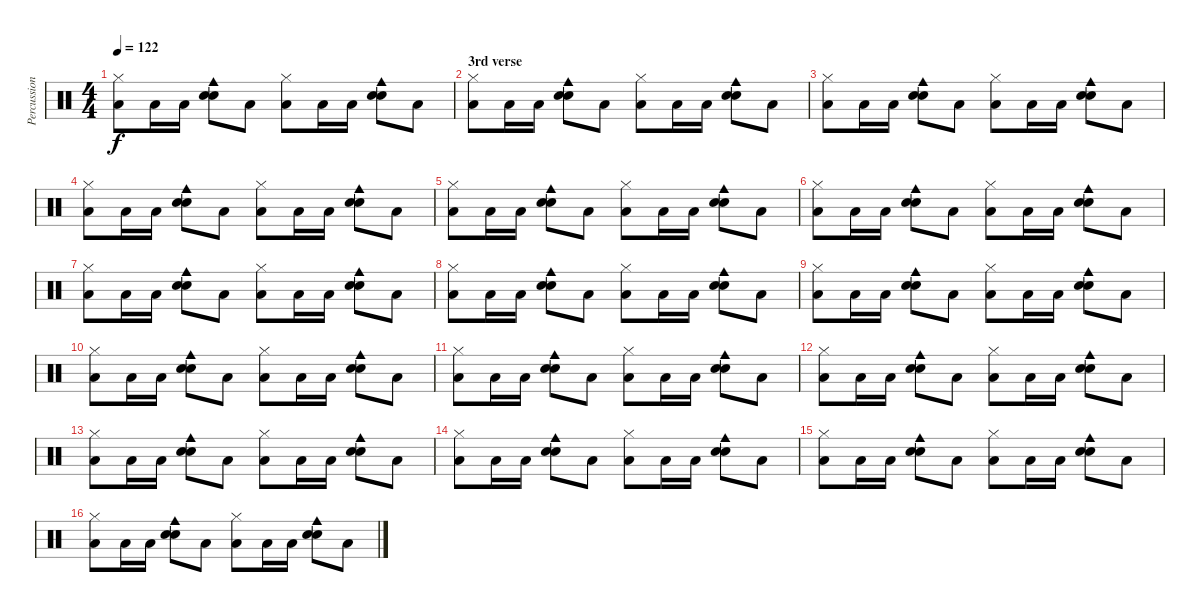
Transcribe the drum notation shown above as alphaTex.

\track ("Percussion" "Percussion") {instrument percussion}
\staff {score}
\articulation defaults
\ts (4 4)
\tempo 122
\clef neutral
\ks c
("Hi-Hat (closed)" "Low Tom (hit)").8{dy f} "Low Tom (hit)".16 "Low Tom (hit)".16 ("Snare (hit) 2" "Electric Snare (hit)" "Cowbell medium (hit)").8 "Low Tom (hit)".8 ("Hi-Hat (closed)" "Low Tom (hit)").8 "Low Tom (hit)".16 "Low Tom (hit)".16 ("Snare (hit) 2" "Electric Snare (hit)" "Cowbell medium (hit)").8 "Low Tom (hit)".8 |
\section ("" "3rd verse")
("Hi-Hat (closed)" "Low Tom (hit)").8 "Low Tom (hit)".16 "Low Tom (hit)".16 ("Snare (hit) 2" "Electric Snare (hit)" "Cowbell medium (hit)").8 "Low Tom (hit)".8 ("Hi-Hat (closed)" "Low Tom (hit)").8 "Low Tom (hit)".16 "Low Tom (hit)".16 ("Snare (hit) 2" "Electric Snare (hit)" "Cowbell medium (hit)").8 "Low Tom (hit)".8 |
("Hi-Hat (closed)" "Low Tom (hit)").8 "Low Tom (hit)".16 "Low Tom (hit)".16 ("Snare (hit) 2" "Electric Snare (hit)" "Cowbell medium (hit)").8 "Low Tom (hit)".8 ("Hi-Hat (closed)" "Low Tom (hit)").8 "Low Tom (hit)".16 "Low Tom (hit)".16 ("Snare (hit) 2" "Electric Snare (hit)" "Cowbell medium (hit)").8 "Low Tom (hit)".8 |
("Hi-Hat (closed)" "Low Tom (hit)").8 "Low Tom (hit)".16 "Low Tom (hit)".16 ("Snare (hit) 2" "Electric Snare (hit)" "Cowbell medium (hit)").8 "Low Tom (hit)".8 ("Hi-Hat (closed)" "Low Tom (hit)").8 "Low Tom (hit)".16 "Low Tom (hit)".16 ("Snare (hit) 2" "Electric Snare (hit)" "Cowbell medium (hit)").8 "Low Tom (hit)".8 |
("Hi-Hat (closed)" "Low Tom (hit)").8 "Low Tom (hit)".16 "Low Tom (hit)".16 ("Snare (hit) 2" "Electric Snare (hit)" "Cowbell medium (hit)").8 "Low Tom (hit)".8 ("Hi-Hat (closed)" "Low Tom (hit)").8 "Low Tom (hit)".16 "Low Tom (hit)".16 ("Snare (hit) 2" "Electric Snare (hit)" "Cowbell medium (hit)").8 "Low Tom (hit)".8 |
("Hi-Hat (closed)" "Low Tom (hit)").8 "Low Tom (hit)".16 "Low Tom (hit)".16 ("Snare (hit) 2" "Electric Snare (hit)" "Cowbell medium (hit)").8 "Low Tom (hit)".8 ("Hi-Hat (closed)" "Low Tom (hit)").8 "Low Tom (hit)".16 "Low Tom (hit)".16 ("Snare (hit) 2" "Electric Snare (hit)" "Cowbell medium (hit)").8 "Low Tom (hit)".8 |
("Hi-Hat (closed)" "Low Tom (hit)").8 "Low Tom (hit)".16 "Low Tom (hit)".16 ("Snare (hit) 2" "Electric Snare (hit)" "Cowbell medium (hit)").8 "Low Tom (hit)".8 ("Hi-Hat (closed)" "Low Tom (hit)").8 "Low Tom (hit)".16 "Low Tom (hit)".16 ("Snare (hit) 2" "Electric Snare (hit)" "Cowbell medium (hit)").8 "Low Tom (hit)".8 |
("Hi-Hat (closed)" "Low Tom (hit)").8 "Low Tom (hit)".16 "Low Tom (hit)".16 ("Snare (hit) 2" "Electric Snare (hit)" "Cowbell medium (hit)").8 "Low Tom (hit)".8 ("Hi-Hat (closed)" "Low Tom (hit)").8 "Low Tom (hit)".16 "Low Tom (hit)".16 ("Snare (hit) 2" "Electric Snare (hit)" "Cowbell medium (hit)").8 "Low Tom (hit)".8 |
("Hi-Hat (closed)" "Low Tom (hit)").8 "Low Tom (hit)".16 "Low Tom (hit)".16 ("Snare (hit) 2" "Electric Snare (hit)" "Cowbell medium (hit)").8 "Low Tom (hit)".8 ("Hi-Hat (closed)" "Low Tom (hit)").8 "Low Tom (hit)".16 "Low Tom (hit)".16 ("Snare (hit) 2" "Electric Snare (hit)" "Cowbell medium (hit)").8 "Low Tom (hit)".8 |
("Hi-Hat (closed)" "Low Tom (hit)").8 "Low Tom (hit)".16 "Low Tom (hit)".16 ("Snare (hit) 2" "Electric Snare (hit)" "Cowbell medium (hit)").8 "Low Tom (hit)".8 ("Hi-Hat (closed)" "Low Tom (hit)").8 "Low Tom (hit)".16 "Low Tom (hit)".16 ("Snare (hit) 2" "Electric Snare (hit)" "Cowbell medium (hit)").8 "Low Tom (hit)".8 |
("Hi-Hat (closed)" "Low Tom (hit)").8 "Low Tom (hit)".16 "Low Tom (hit)".16 ("Snare (hit) 2" "Electric Snare (hit)" "Cowbell medium (hit)").8 "Low Tom (hit)".8 ("Hi-Hat (closed)" "Low Tom (hit)").8 "Low Tom (hit)".16 "Low Tom (hit)".16 ("Snare (hit) 2" "Electric Snare (hit)" "Cowbell medium (hit)").8 "Low Tom (hit)".8 |
("Hi-Hat (closed)" "Low Tom (hit)").8 "Low Tom (hit)".16 "Low Tom (hit)".16 ("Snare (hit) 2" "Electric Snare (hit)" "Cowbell medium (hit)").8 "Low Tom (hit)".8 ("Hi-Hat (closed)" "Low Tom (hit)").8 "Low Tom (hit)".16 "Low Tom (hit)".16 ("Snare (hit) 2" "Electric Snare (hit)" "Cowbell medium (hit)").8 "Low Tom (hit)".8 |
("Hi-Hat (closed)" "Low Tom (hit)").8 "Low Tom (hit)".16 "Low Tom (hit)".16 ("Snare (hit) 2" "Electric Snare (hit)" "Cowbell medium (hit)").8 "Low Tom (hit)".8 ("Hi-Hat (closed)" "Low Tom (hit)").8 "Low Tom (hit)".16 "Low Tom (hit)".16 ("Snare (hit) 2" "Electric Snare (hit)" "Cowbell medium (hit)").8 "Low Tom (hit)".8 |
("Hi-Hat (closed)" "Low Tom (hit)").8 "Low Tom (hit)".16 "Low Tom (hit)".16 ("Snare (hit) 2" "Electric Snare (hit)" "Cowbell medium (hit)").8 "Low Tom (hit)".8 ("Hi-Hat (closed)" "Low Tom (hit)").8 "Low Tom (hit)".16 "Low Tom (hit)".16 ("Snare (hit) 2" "Electric Snare (hit)" "Cowbell medium (hit)").8 "Low Tom (hit)".8 |
("Hi-Hat (closed)" "Low Tom (hit)").8 "Low Tom (hit)".16 "Low Tom (hit)".16 ("Snare (hit) 2" "Electric Snare (hit)" "Cowbell medium (hit)").8 "Low Tom (hit)".8 ("Hi-Hat (closed)" "Low Tom (hit)").8 "Low Tom (hit)".16 "Low Tom (hit)".16 ("Snare (hit) 2" "Electric Snare (hit)" "Cowbell medium (hit)").8 "Low Tom (hit)".8 |
("Hi-Hat (closed)" "Low Tom (hit)").8 "Low Tom (hit)".16 "Low Tom (hit)".16 ("Snare (hit) 2" "Electric Snare (hit)" "Cowbell medium (hit)").8 "Low Tom (hit)".8 ("Hi-Hat (closed)" "Low Tom (hit)").8 "Low Tom (hit)".16 "Low Tom (hit)".16 ("Snare (hit) 2" "Electric Snare (hit)" "Cowbell medium (hit)").8 "Low Tom (hit)".8
